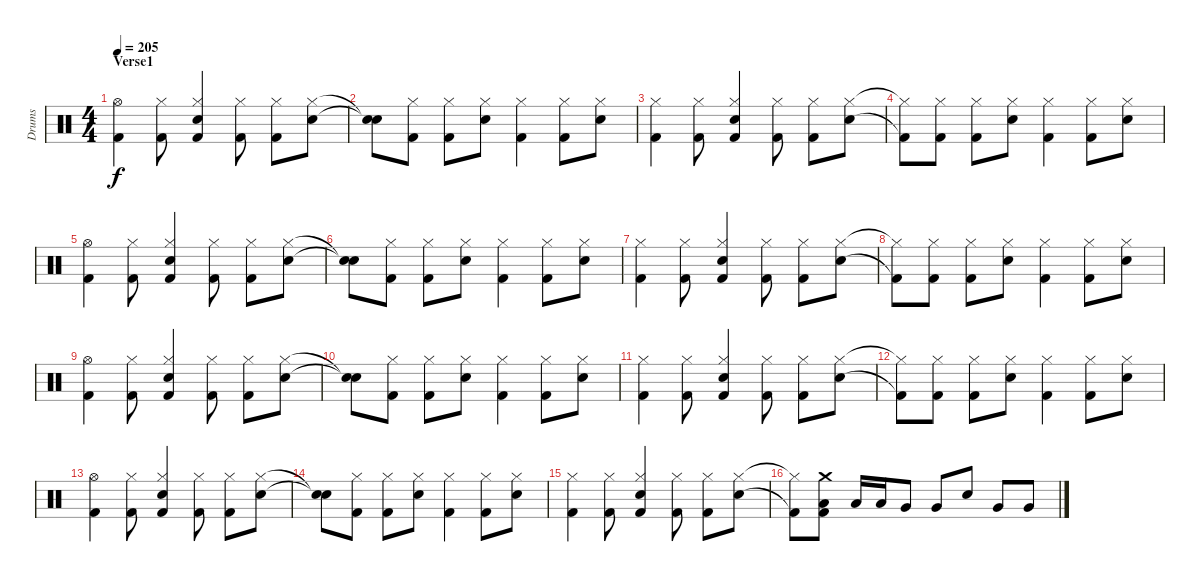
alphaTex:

\track ("Drums" "Drums") {instrument percussion}
\staff {score}
\articulation defaults
\ts (4 4)
\section ("" "Verse1")
\tempo 205
\clef neutral
\ks c
("Hi-Hat (open)" "Kick (hit) 2").4{dy f} ("Hi-Hat (closed)" "Kick (hit) 2").8 ("Electric Snare (hit)" "Hi-Hat (closed)" "Kick (hit) 2").4 ("Hi-Hat (closed)" "Kick (hit) 2").8 ("Hi-Hat (closed)" "Kick (hit) 2").8 ("Hi-Hat (closed)" "Electric Snare (hit)").8 |
("Snare (hit)"{t} "Snare (hit)"{t}).8 ("Hi-Hat (closed)" "Kick (hit) 2").8 ("Hi-Hat (closed)" "Kick (hit) 2").8 ("Hi-Hat (closed)" "Electric Snare (hit)").8 ("Hi-Hat (closed)" "Kick (hit) 2").4 ("Hi-Hat (closed)" "Kick (hit) 2").8 ("Electric Snare (hit)" "Hi-Hat (closed)").8 |
("Hi-Hat (closed)" "Kick (hit) 2").4 ("Hi-Hat (closed)" "Kick (hit) 2").8 ("Hi-Hat (closed)" "Electric Snare (hit)" "Kick (hit) 2").4 ("Hi-Hat (closed)" "Kick (hit) 2").8 ("Hi-Hat (closed)" "Kick (hit) 2").8 ("Hi-Hat (closed)" "Electric Snare (hit)").8 |
("Hi-Hat (closed)"{t} "Kick (hit) 2"{t}).8 ("Hi-Hat (closed)" "Kick (hit) 2").8 ("Hi-Hat (closed)" "Kick (hit) 2").8 ("Electric Snare (hit)" "Hi-Hat (closed)").8 ("Hi-Hat (closed)" "Kick (hit) 2").4 ("Hi-Hat (closed)" "Kick (hit) 2").8 ("Hi-Hat (closed)" "Electric Snare (hit)").8 |
("Hi-Hat (open)" "Kick (hit) 2").4 ("Hi-Hat (closed)" "Kick (hit) 2").8 ("Electric Snare (hit)" "Hi-Hat (closed)" "Kick (hit) 2").4 ("Hi-Hat (closed)" "Kick (hit) 2").8 ("Hi-Hat (closed)" "Kick (hit) 2").8 ("Hi-Hat (closed)" "Electric Snare (hit)").8 |
("Snare (hit)"{t} "Snare (hit)"{t}).8 ("Hi-Hat (closed)" "Kick (hit) 2").8 ("Hi-Hat (closed)" "Kick (hit) 2").8 ("Hi-Hat (closed)" "Electric Snare (hit)").8 ("Hi-Hat (closed)" "Kick (hit) 2").4 ("Hi-Hat (closed)" "Kick (hit) 2").8 ("Electric Snare (hit)" "Hi-Hat (closed)").8 |
("Hi-Hat (closed)" "Kick (hit) 2").4 ("Hi-Hat (closed)" "Kick (hit) 2").8 ("Hi-Hat (closed)" "Electric Snare (hit)" "Kick (hit) 2").4 ("Hi-Hat (closed)" "Kick (hit) 2").8 ("Hi-Hat (closed)" "Kick (hit) 2").8 ("Hi-Hat (closed)" "Electric Snare (hit)").8 |
("Hi-Hat (closed)"{t} "Kick (hit) 2"{t}).8 ("Hi-Hat (closed)" "Kick (hit) 2").8 ("Hi-Hat (closed)" "Kick (hit) 2").8 ("Electric Snare (hit)" "Hi-Hat (closed)").8 ("Hi-Hat (closed)" "Kick (hit) 2").4 ("Hi-Hat (closed)" "Kick (hit) 2").8 ("Hi-Hat (closed)" "Electric Snare (hit)").8 |
("Hi-Hat (open)" "Kick (hit) 2").4 ("Hi-Hat (closed)" "Kick (hit) 2").8 ("Electric Snare (hit)" "Hi-Hat (closed)" "Kick (hit) 2").4 ("Hi-Hat (closed)" "Kick (hit) 2").8 ("Hi-Hat (closed)" "Kick (hit) 2").8 ("Hi-Hat (closed)" "Electric Snare (hit)").8 |
("Snare (hit)"{t} "Snare (hit)"{t}).8 ("Hi-Hat (closed)" "Kick (hit) 2").8 ("Hi-Hat (closed)" "Kick (hit) 2").8 ("Hi-Hat (closed)" "Electric Snare (hit)").8 ("Hi-Hat (closed)" "Kick (hit) 2").4 ("Hi-Hat (closed)" "Kick (hit) 2").8 ("Electric Snare (hit)" "Hi-Hat (closed)").8 |
("Hi-Hat (closed)" "Kick (hit) 2").4 ("Hi-Hat (closed)" "Kick (hit) 2").8 ("Hi-Hat (closed)" "Electric Snare (hit)" "Kick (hit) 2").4 ("Hi-Hat (closed)" "Kick (hit) 2").8 ("Hi-Hat (closed)" "Kick (hit) 2").8 ("Hi-Hat (closed)" "Electric Snare (hit)").8 |
("Hi-Hat (closed)"{t} "Kick (hit) 2"{t}).8 ("Hi-Hat (closed)" "Kick (hit) 2").8 ("Hi-Hat (closed)" "Kick (hit) 2").8 ("Electric Snare (hit)" "Hi-Hat (closed)").8 ("Hi-Hat (closed)" "Kick (hit) 2").4 ("Hi-Hat (closed)" "Kick (hit) 2").8 ("Hi-Hat (closed)" "Electric Snare (hit)").8 |
("Hi-Hat (open)" "Kick (hit) 2").4 ("Hi-Hat (closed)" "Kick (hit) 2").8 ("Electric Snare (hit)" "Hi-Hat (closed)" "Kick (hit) 2").4 ("Hi-Hat (closed)" "Kick (hit) 2").8 ("Hi-Hat (closed)" "Kick (hit) 2").8 ("Hi-Hat (closed)" "Electric Snare (hit)").8 |
("Snare (hit)"{t} "Snare (hit)"{t}).8 ("Hi-Hat (closed)" "Kick (hit) 2").8 ("Hi-Hat (closed)" "Kick (hit) 2").8 ("Hi-Hat (closed)" "Electric Snare (hit)").8 ("Hi-Hat (closed)" "Kick (hit) 2").4 ("Hi-Hat (closed)" "Kick (hit) 2").8 ("Electric Snare (hit)" "Hi-Hat (closed)").8 |
("Hi-Hat (closed)" "Kick (hit) 2").4 ("Hi-Hat (closed)" "Kick (hit) 2").8 ("Hi-Hat (closed)" "Electric Snare (hit)" "Kick (hit) 2").4 ("Hi-Hat (closed)" "Kick (hit) 2").8 ("Hi-Hat (closed)" "Kick (hit) 2").8 ("Hi-Hat (closed)" "Electric Snare (hit)").8 |
("Hi-Hat (closed)"{t} "Kick (hit) 2"{t}).8 ("Crash medium (hit)" "Low Tom (hit)" "Kick (hit) 2").8 "Low Tom (hit)".16 "Low Tom (hit)".16 "Very Low Tom (hit)".8 "Very Low Tom (hit)".8 "Electric Snare (hit)".8 "Very Low Tom (hit)".8 "Very Low Tom (hit)".8
